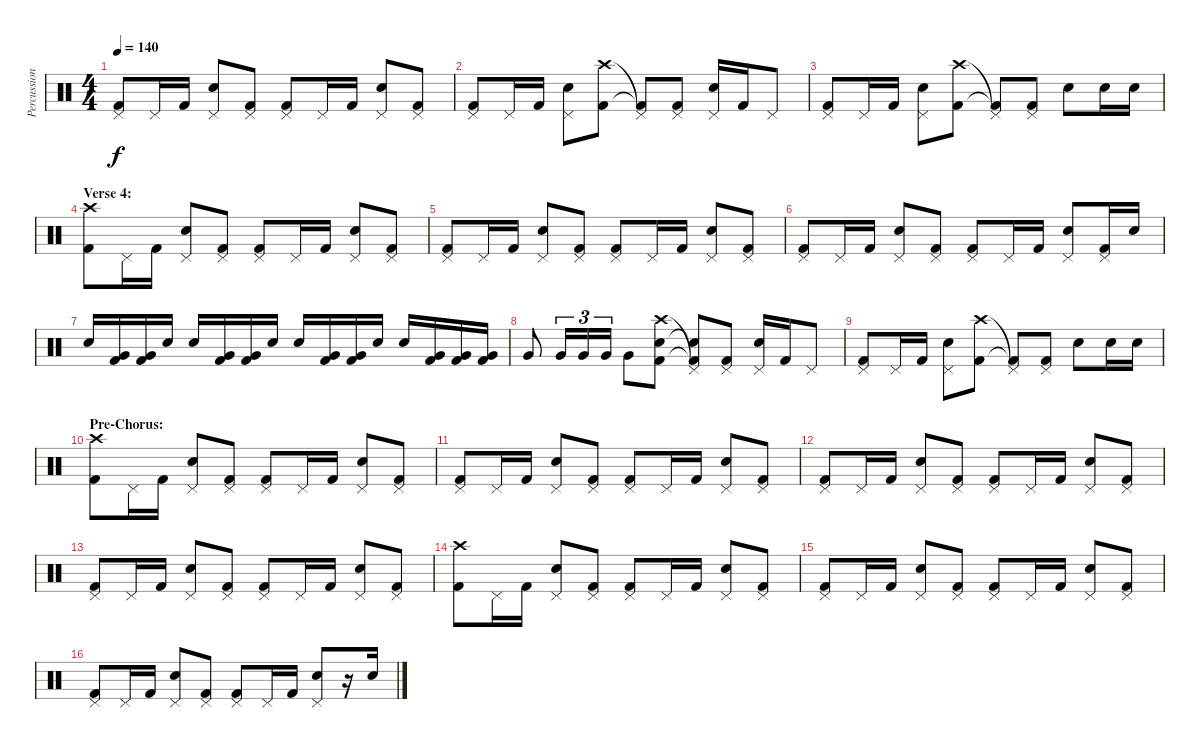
\track ("Percussion" "Percussion") {instrument percussion}
\staff {score}
\articulation defaults
\ts (4 4)
\tempo 140
\clef neutral
\ks c
("Pedal Hi-Hat (hit)" "Kick (hit) 2").8{dy f} "Pedal Hi-Hat (hit)".16 "Kick (hit) 2".16 ("Pedal Hi-Hat (hit)" "Snare (hit) 2").8 ("Pedal Hi-Hat (hit)" "Kick (hit) 2").8 ("Pedal Hi-Hat (hit)" "Kick (hit) 2").8 "Pedal Hi-Hat (hit)".16 "Kick (hit) 2".16 ("Pedal Hi-Hat (hit)" "Snare (hit) 2").8 ("Pedal Hi-Hat (hit)" "Kick (hit) 2").8 |
("Pedal Hi-Hat (hit)" "Kick (hit) 2").8 "Pedal Hi-Hat (hit)".16 "Kick (hit) 2".16 ("Pedal Hi-Hat (hit)" "Snare (hit) 2").8 ("Crash high (hit)" "Kick (hit) 2").8 ("Pedal Hi-Hat (hit)"{t} "Kick (hit) 2"{t}).8 ("Pedal Hi-Hat (hit)" "Kick (hit) 2").8 ("Pedal Hi-Hat (hit)" "Snare (hit) 2").16 "Kick (hit) 2".16 "Pedal Hi-Hat (hit)".8 |
("Pedal Hi-Hat (hit)" "Kick (hit) 2").8 "Pedal Hi-Hat (hit)".16 "Kick (hit) 2".16 ("Pedal Hi-Hat (hit)" "Snare (hit) 2").8 ("Crash high (hit)" "Kick (hit) 2").8 ("Pedal Hi-Hat (hit)"{t} "Kick (hit) 2"{t}).8 ("Pedal Hi-Hat (hit)" "Kick (hit) 2").8 "Snare (hit) 2".8 "Snare (hit) 2".16 "Snare (hit) 2".16 |
\section ("" "Verse 4:")
("Crash high (hit)" "Kick (hit) 2").8 "Pedal Hi-Hat (hit)".16 "Kick (hit) 2".16 ("Pedal Hi-Hat (hit)" "Snare (hit) 2").8 ("Pedal Hi-Hat (hit)" "Kick (hit) 2").8 ("Pedal Hi-Hat (hit)" "Kick (hit) 2").8 "Pedal Hi-Hat (hit)".16 "Kick (hit) 2".16 ("Pedal Hi-Hat (hit)" "Snare (hit) 2").8 ("Pedal Hi-Hat (hit)" "Kick (hit) 2").8 |
("Pedal Hi-Hat (hit)" "Kick (hit) 2").8 "Pedal Hi-Hat (hit)".16 "Kick (hit) 2".16 ("Pedal Hi-Hat (hit)" "Snare (hit) 2").8 ("Pedal Hi-Hat (hit)" "Kick (hit) 2").8 ("Pedal Hi-Hat (hit)" "Kick (hit) 2").8 "Pedal Hi-Hat (hit)".16 "Kick (hit) 2".16 ("Pedal Hi-Hat (hit)" "Snare (hit) 2").8 ("Pedal Hi-Hat (hit)" "Kick (hit) 2").8 |
("Pedal Hi-Hat (hit)" "Kick (hit) 2").8 "Pedal Hi-Hat (hit)".16 "Kick (hit) 2".16 ("Pedal Hi-Hat (hit)" "Snare (hit) 2").8 ("Pedal Hi-Hat (hit)" "Kick (hit) 2").8 ("Pedal Hi-Hat (hit)" "Kick (hit) 2").8 "Pedal Hi-Hat (hit)".16 "Kick (hit) 2".16 ("Pedal Hi-Hat (hit)" "Snare (hit) 2").8 ("Pedal Hi-Hat (hit)" "Kick (hit) 2").16 "Snare (hit) 2".16 |
"Snare (hit) 2".16 ("Very Low Tom (hit)" "Kick (hit) 2").16 ("Very Low Tom (hit)" "Kick (hit) 2").16 "Snare (hit) 2".16 "Snare (hit) 2".16 ("Very Low Tom (hit)" "Kick (hit) 2").16 ("Very Low Tom (hit)" "Kick (hit) 2").16 "Snare (hit) 2".16 "Snare (hit) 2".16 ("Very Low Tom (hit)" "Kick (hit) 2").16 ("Very Low Tom (hit)" "Kick (hit) 2").16 "Snare (hit) 2".16 "Snare (hit) 2".16 ("Very Low Tom (hit)" "Kick (hit) 2").16 ("Very Low Tom (hit)" "Kick (hit) 2").16 ("Very Low Tom (hit)" "Kick (hit) 2").16 |
"Very Low Tom (hit)".8 "Very Low Tom (hit)".16{tu (3 2)} "Very Low Tom (hit)".16{tu (3 2)} "Very Low Tom (hit)".16{tu (3 2)} "Very Low Tom (hit)".8 ("Crash high (hit)" "Snare (hit) 2" "Kick (hit) 2").8 ("Pedal Hi-Hat (hit)"{t} "Snare (hit)"{t} "Kick (hit) 2"{t}).8 ("Pedal Hi-Hat (hit)" "Kick (hit) 2").8 ("Pedal Hi-Hat (hit)" "Snare (hit) 2").16 "Kick (hit) 2".16 "Pedal Hi-Hat (hit)".8 |
("Pedal Hi-Hat (hit)" "Kick (hit) 2").8 "Pedal Hi-Hat (hit)".16 "Kick (hit) 2".16 ("Pedal Hi-Hat (hit)" "Snare (hit) 2").8 ("Crash high (hit)" "Kick (hit) 2").8 ("Pedal Hi-Hat (hit)"{t} "Kick (hit) 2"{t}).8 ("Pedal Hi-Hat (hit)" "Kick (hit) 2").8 "Snare (hit) 2".8 "Snare (hit) 2".16 "Snare (hit) 2".16 |
\section ("" "Pre-Chorus:")
("Crash high (hit)" "Kick (hit) 2").8 "Pedal Hi-Hat (hit)".16 "Kick (hit) 2".16 ("Pedal Hi-Hat (hit)" "Snare (hit) 2").8 ("Pedal Hi-Hat (hit)" "Kick (hit) 2").8 ("Pedal Hi-Hat (hit)" "Kick (hit) 2").8 "Pedal Hi-Hat (hit)".16 "Kick (hit) 2".16 ("Pedal Hi-Hat (hit)" "Snare (hit) 2").8 ("Pedal Hi-Hat (hit)" "Kick (hit) 2").8 |
("Pedal Hi-Hat (hit)" "Kick (hit) 2").8 "Pedal Hi-Hat (hit)".16 "Kick (hit) 2".16 ("Pedal Hi-Hat (hit)" "Snare (hit) 2").8 ("Pedal Hi-Hat (hit)" "Kick (hit) 2").8 ("Pedal Hi-Hat (hit)" "Kick (hit) 2").8 "Pedal Hi-Hat (hit)".16 "Kick (hit) 2".16 ("Pedal Hi-Hat (hit)" "Snare (hit) 2").8 ("Pedal Hi-Hat (hit)" "Kick (hit) 2").8 |
("Pedal Hi-Hat (hit)" "Kick (hit) 2").8 "Pedal Hi-Hat (hit)".16 "Kick (hit) 2".16 ("Pedal Hi-Hat (hit)" "Snare (hit) 2").8 ("Pedal Hi-Hat (hit)" "Kick (hit) 2").8 ("Pedal Hi-Hat (hit)" "Kick (hit) 2").8 "Pedal Hi-Hat (hit)".16 "Kick (hit) 2".16 ("Pedal Hi-Hat (hit)" "Snare (hit) 2").8 ("Pedal Hi-Hat (hit)" "Kick (hit) 2").8 |
("Pedal Hi-Hat (hit)" "Kick (hit) 2").8 "Pedal Hi-Hat (hit)".16 "Kick (hit) 2".16 ("Pedal Hi-Hat (hit)" "Snare (hit) 2").8 ("Pedal Hi-Hat (hit)" "Kick (hit) 2").8 ("Pedal Hi-Hat (hit)" "Kick (hit) 2").8 "Pedal Hi-Hat (hit)".16 "Kick (hit) 2".16 ("Pedal Hi-Hat (hit)" "Snare (hit) 2").8 ("Pedal Hi-Hat (hit)" "Kick (hit) 2").8 |
("Crash high (hit)" "Kick (hit) 2").8 "Pedal Hi-Hat (hit)".16 "Kick (hit) 2".16 ("Pedal Hi-Hat (hit)" "Snare (hit) 2").8 ("Pedal Hi-Hat (hit)" "Kick (hit) 2").8 ("Pedal Hi-Hat (hit)" "Kick (hit) 2").8 "Pedal Hi-Hat (hit)".16 "Kick (hit) 2".16 ("Pedal Hi-Hat (hit)" "Snare (hit) 2").8 ("Pedal Hi-Hat (hit)" "Kick (hit) 2").8 |
("Pedal Hi-Hat (hit)" "Kick (hit) 2").8 "Pedal Hi-Hat (hit)".16 "Kick (hit) 2".16 ("Pedal Hi-Hat (hit)" "Snare (hit) 2").8 ("Pedal Hi-Hat (hit)" "Kick (hit) 2").8 ("Pedal Hi-Hat (hit)" "Kick (hit) 2").8 "Pedal Hi-Hat (hit)".16 "Kick (hit) 2".16 ("Pedal Hi-Hat (hit)" "Snare (hit) 2").8 ("Pedal Hi-Hat (hit)" "Kick (hit) 2").8 |
("Pedal Hi-Hat (hit)" "Kick (hit) 2").8 "Pedal Hi-Hat (hit)".16 "Kick (hit) 2".16 ("Pedal Hi-Hat (hit)" "Snare (hit) 2").8 ("Pedal Hi-Hat (hit)" "Kick (hit) 2").8 ("Pedal Hi-Hat (hit)" "Kick (hit) 2").8 "Pedal Hi-Hat (hit)".16 "Kick (hit) 2".16 ("Pedal Hi-Hat (hit)" "Snare (hit) 2").8 r.16 "Snare (hit) 2".16
